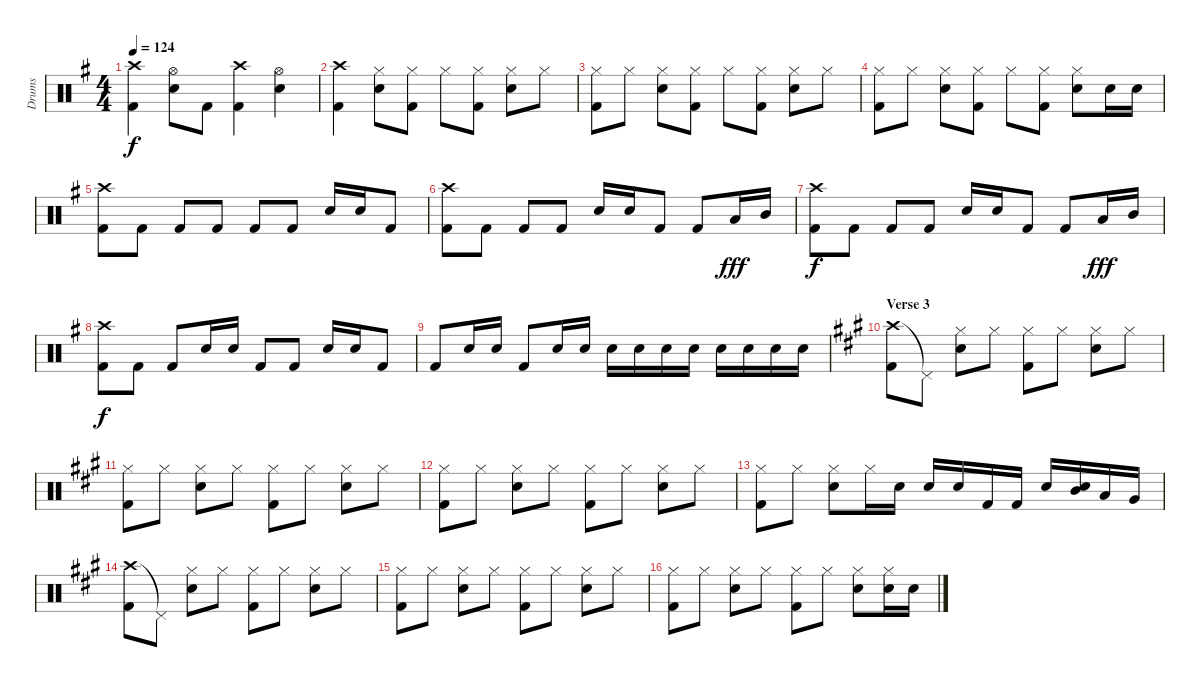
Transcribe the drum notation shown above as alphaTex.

\track ("Drums" "Drums") {instrument percussion}
\staff {score}
\articulation defaults
\ts (4 4)
\tempo 124
\clef neutral
\ks eminor
("Crash high (hit)" "Kick (hit) 2").4{dy f} ("Hi-Hat (open)" "Electric Snare (hit)").8 "Kick (hit) 2".8 ("Crash high (hit)" "Kick (hit) 2").4 ("Hi-Hat (open)" "Electric Snare (hit)").4 |
("Crash high (hit)" "Kick (hit) 2").4 ("Hi-Hat (closed)" "Electric Snare (hit)").8 ("Hi-Hat (closed)" "Kick (hit) 2").8 "Hi-Hat (closed)".8 ("Hi-Hat (closed)" "Kick (hit) 2").8 ("Hi-Hat (closed)" "Electric Snare (hit)").8 "Hi-Hat (closed)".8 |
("Hi-Hat (closed)" "Kick (hit) 2").8 "Hi-Hat (closed)".8 ("Hi-Hat (closed)" "Electric Snare (hit)").8 ("Hi-Hat (closed)" "Kick (hit) 2").8 "Hi-Hat (closed)".8 ("Hi-Hat (closed)" "Kick (hit) 2").8 ("Hi-Hat (closed)" "Electric Snare (hit)").8 "Hi-Hat (closed)".8 |
("Hi-Hat (closed)" "Kick (hit) 2").8 "Hi-Hat (closed)".8 ("Hi-Hat (closed)" "Electric Snare (hit)").8 ("Hi-Hat (closed)" "Kick (hit) 2").8 "Hi-Hat (closed)".8 ("Hi-Hat (closed)" "Kick (hit) 2").8 ("Hi-Hat (closed)" "Electric Snare (hit)").8 "Electric Snare (hit)".16 "Electric Snare (hit)".16 |
("Crash high (hit)" "Kick (hit) 2").8 "Kick (hit) 2".8 "Kick (hit) 2".8 "Kick (hit) 2".8 "Kick (hit) 2".8 "Kick (hit) 2".8 "Electric Snare (hit)".16 "Electric Snare (hit)".16 "Kick (hit) 2".8 |
("Crash high (hit)" "Kick (hit) 2").8 "Kick (hit) 2".8 "Kick (hit) 2".8 "Kick (hit) 2".8 "Electric Snare (hit)".16 "Electric Snare (hit)".16 "Kick (hit) 2".8 "Kick (hit) 2".8 "Low Tom (hit)".16{dy fff} "Mid Tom (hit)".16 |
("Crash high (hit)" "Kick (hit) 2").8{dy f} "Kick (hit) 2".8 "Kick (hit) 2".8 "Kick (hit) 2".8 "Electric Snare (hit)".16 "Electric Snare (hit)".16 "Kick (hit) 2".8 "Kick (hit) 2".8 "Low Tom (hit)".16{dy fff} "Mid Tom (hit)".16 |
("Crash high (hit)" "Kick (hit) 2").8{dy f} "Kick (hit) 2".8 "Kick (hit) 2".8 "Electric Snare (hit)".16 "Electric Snare (hit)".16 "Kick (hit) 2".8 "Kick (hit) 2".8 "Electric Snare (hit)".16 "Electric Snare (hit)".16 "Kick (hit) 2".8 |
"Kick (hit) 2".8 "Electric Snare (hit)".16 "Electric Snare (hit)".16 "Kick (hit) 2".8 "Electric Snare (hit)".16 "Electric Snare (hit)".16 "Electric Snare (hit)".16 "Electric Snare (hit)".16 "Electric Snare (hit)".16 "Electric Snare (hit)".16 "Electric Snare (hit)".16 "Electric Snare (hit)".16 "Electric Snare (hit)".16 "Electric Snare (hit)".16 |
\section ("" "Verse 3")
\ks a
("Crash high (hit)" "Kick (hit) 2").8 "Pedal Hi-Hat (hit)"{t}.8 ("Hi-Hat (closed)" "Electric Snare (hit)").8 "Hi-Hat (closed)".8 ("Hi-Hat (closed)" "Kick (hit) 2").8 "Hi-Hat (closed)".8 ("Hi-Hat (closed)" "Electric Snare (hit)").8 "Hi-Hat (closed)".8 |
("Hi-Hat (closed)" "Kick (hit) 2").8 "Hi-Hat (closed)".8 ("Hi-Hat (closed)" "Electric Snare (hit)").8 "Hi-Hat (closed)".8 ("Hi-Hat (closed)" "Kick (hit) 2").8 "Hi-Hat (closed)".8 ("Hi-Hat (closed)" "Electric Snare (hit)").8 "Hi-Hat (closed)".8 |
("Hi-Hat (closed)" "Kick (hit) 2").8 "Hi-Hat (closed)".8 ("Hi-Hat (closed)" "Electric Snare (hit)").8 "Hi-Hat (closed)".8 ("Hi-Hat (closed)" "Kick (hit) 2").8 "Hi-Hat (closed)".8 ("Hi-Hat (closed)" "Electric Snare (hit)").8 "Hi-Hat (closed)".8 |
("Hi-Hat (closed)" "Kick (hit) 2").8 "Hi-Hat (closed)".8 ("Hi-Hat (closed)" "Electric Snare (hit)").8 "Hi-Hat (closed)".16 "Electric Snare (hit)".16 "Electric Snare (hit)".16 "Electric Snare (hit)".16 "Kick (hit) 2".16 "Kick (hit) 2".16 "Electric Snare (hit)".16 ("Electric Snare (hit)" "Mid Tom (hit)").16 "Low Tom (hit)".16 "Very Low Tom (hit)".16 |
("Crash high (hit)" "Kick (hit) 2").8 "Pedal Hi-Hat (hit)"{t}.8 ("Hi-Hat (closed)" "Electric Snare (hit)").8 "Hi-Hat (closed)".8 ("Hi-Hat (closed)" "Kick (hit) 2").8 "Hi-Hat (closed)".8 ("Hi-Hat (closed)" "Electric Snare (hit)").8 "Hi-Hat (closed)".8 |
("Hi-Hat (closed)" "Kick (hit) 2").8 "Hi-Hat (closed)".8 ("Hi-Hat (closed)" "Electric Snare (hit)").8 "Hi-Hat (closed)".8 ("Hi-Hat (closed)" "Kick (hit) 2").8 "Hi-Hat (closed)".8 ("Hi-Hat (closed)" "Electric Snare (hit)").8 "Hi-Hat (closed)".8 |
("Hi-Hat (closed)" "Kick (hit) 2").8 "Hi-Hat (closed)".8 ("Hi-Hat (closed)" "Electric Snare (hit)").8 "Hi-Hat (closed)".8 ("Hi-Hat (closed)" "Kick (hit) 2").8 "Hi-Hat (closed)".8 ("Hi-Hat (closed)" "Electric Snare (hit)").8 ("Hi-Hat (closed)" "Electric Snare (hit)").16 "Electric Snare (hit)".16
